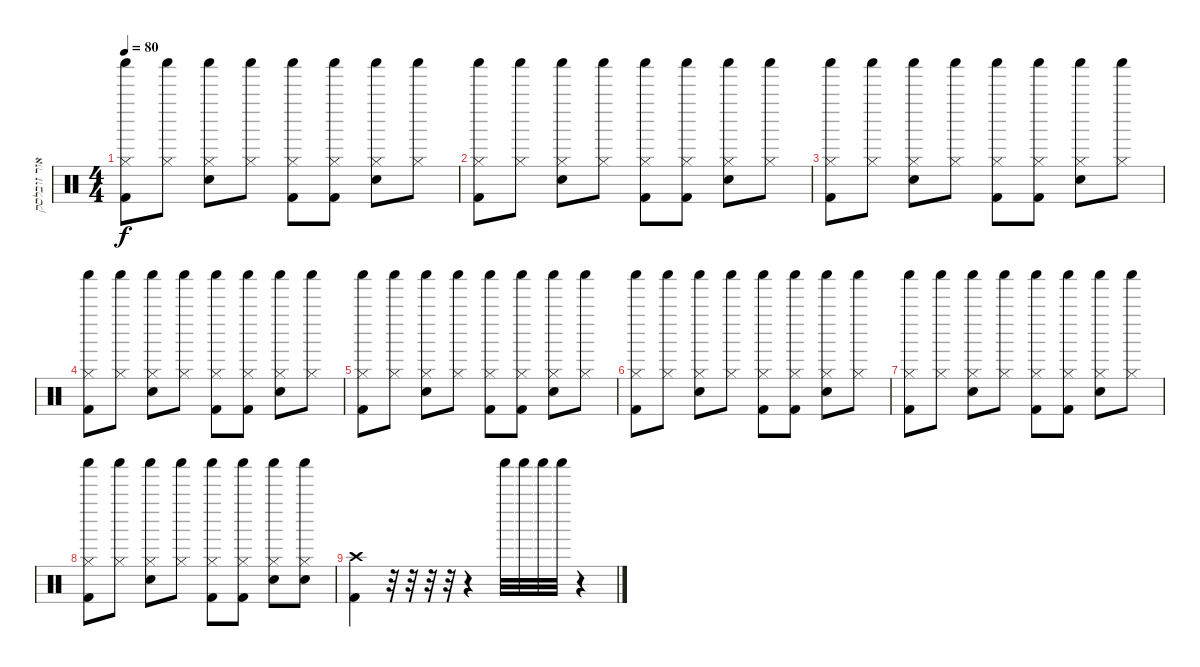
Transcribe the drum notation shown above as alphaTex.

\track ("אור זובלסקי" "אור זובלסק") {instrument percussion}
\staff {score}
\articulation defaults
\ts (4 4)
\tempo 80
\clef neutral
\ks c
("Hi-Hat (closed)" "Shaker (hit)" "Kick (hit) 2").8{dy f} ("Hi-Hat (closed)" "Shaker (hit)").8 ("Hi-Hat (closed)" "Shaker (hit)" "Electric Snare (hit)").8 ("Hi-Hat (closed)" "Shaker (hit)").8 ("Hi-Hat (closed)" "Shaker (hit)" "Kick (hit) 2").8 ("Hi-Hat (closed)" "Shaker (hit)" "Kick (hit) 2").8 ("Hi-Hat (closed)" "Shaker (hit)" "Electric Snare (hit)").8 ("Hi-Hat (closed)" "Shaker (hit)").8 |
("Hi-Hat (closed)" "Shaker (hit)" "Kick (hit) 2").8 ("Hi-Hat (closed)" "Shaker (hit)").8 ("Hi-Hat (closed)" "Shaker (hit)" "Electric Snare (hit)").8 ("Hi-Hat (closed)" "Shaker (hit)").8 ("Hi-Hat (closed)" "Shaker (hit)" "Kick (hit) 2").8 ("Hi-Hat (closed)" "Shaker (hit)" "Kick (hit) 2").8 ("Hi-Hat (closed)" "Shaker (hit)" "Electric Snare (hit)").8 ("Hi-Hat (closed)" "Shaker (hit)").8 |
("Hi-Hat (closed)" "Shaker (hit)" "Kick (hit) 2").8 ("Hi-Hat (closed)" "Shaker (hit)").8 ("Hi-Hat (closed)" "Shaker (hit)" "Electric Snare (hit)").8 ("Hi-Hat (closed)" "Shaker (hit)").8 ("Hi-Hat (closed)" "Shaker (hit)" "Kick (hit) 2").8 ("Hi-Hat (closed)" "Shaker (hit)" "Kick (hit) 2").8 ("Hi-Hat (closed)" "Shaker (hit)" "Electric Snare (hit)").8 ("Hi-Hat (closed)" "Shaker (hit)").8 |
("Hi-Hat (closed)" "Shaker (hit)" "Kick (hit) 2").8 ("Hi-Hat (closed)" "Shaker (hit)").8 ("Hi-Hat (closed)" "Shaker (hit)" "Electric Snare (hit)").8 ("Hi-Hat (closed)" "Shaker (hit)").8 ("Hi-Hat (closed)" "Shaker (hit)" "Kick (hit) 2").8 ("Hi-Hat (closed)" "Shaker (hit)" "Kick (hit) 2").8 ("Hi-Hat (closed)" "Shaker (hit)" "Electric Snare (hit)").8 ("Hi-Hat (closed)" "Shaker (hit)").8 |
("Hi-Hat (closed)" "Shaker (hit)" "Kick (hit) 2").8 ("Hi-Hat (closed)" "Shaker (hit)").8 ("Hi-Hat (closed)" "Shaker (hit)" "Electric Snare (hit)").8 ("Hi-Hat (closed)" "Shaker (hit)").8 ("Hi-Hat (closed)" "Shaker (hit)" "Kick (hit) 2").8 ("Hi-Hat (closed)" "Shaker (hit)" "Kick (hit) 2").8 ("Hi-Hat (closed)" "Shaker (hit)" "Electric Snare (hit)").8 ("Hi-Hat (closed)" "Shaker (hit)").8 |
("Hi-Hat (closed)" "Shaker (hit)" "Kick (hit) 2").8 ("Hi-Hat (closed)" "Shaker (hit)").8 ("Hi-Hat (closed)" "Shaker (hit)" "Electric Snare (hit)").8 ("Hi-Hat (closed)" "Shaker (hit)").8 ("Hi-Hat (closed)" "Shaker (hit)" "Kick (hit) 2").8 ("Hi-Hat (closed)" "Shaker (hit)" "Kick (hit) 2").8 ("Hi-Hat (closed)" "Shaker (hit)" "Electric Snare (hit)").8 ("Hi-Hat (closed)" "Shaker (hit)").8 |
("Hi-Hat (closed)" "Shaker (hit)" "Kick (hit) 2").8 ("Hi-Hat (closed)" "Shaker (hit)").8 ("Hi-Hat (closed)" "Shaker (hit)" "Electric Snare (hit)").8 ("Hi-Hat (closed)" "Shaker (hit)").8 ("Hi-Hat (closed)" "Shaker (hit)" "Kick (hit) 2").8 ("Hi-Hat (closed)" "Shaker (hit)" "Kick (hit) 2").8 ("Hi-Hat (closed)" "Shaker (hit)" "Electric Snare (hit)").8 ("Hi-Hat (closed)" "Shaker (hit)").8 |
("Hi-Hat (closed)" "Shaker (hit)" "Kick (hit) 2").8 ("Hi-Hat (closed)" "Shaker (hit)").8 ("Hi-Hat (closed)" "Shaker (hit)" "Electric Snare (hit)").8 ("Hi-Hat (closed)" "Shaker (hit)").8 ("Hi-Hat (closed)" "Shaker (hit)" "Kick (hit) 2").8 ("Hi-Hat (closed)" "Shaker (hit)" "Kick (hit) 2").8 ("Hi-Hat (closed)" "Shaker (hit)" "Electric Snare (hit)").8 ("Hi-Hat (closed)" "Shaker (hit)" "Electric Snare (hit)").8 |
("Crash high (hit)" "Kick (hit) 2").4 r.32 r.32 r.32 r.32 r.4 "Shaker (hit)".32 "Shaker (hit)".32 "Shaker (hit)".32 "Shaker (hit)".32 r.4
